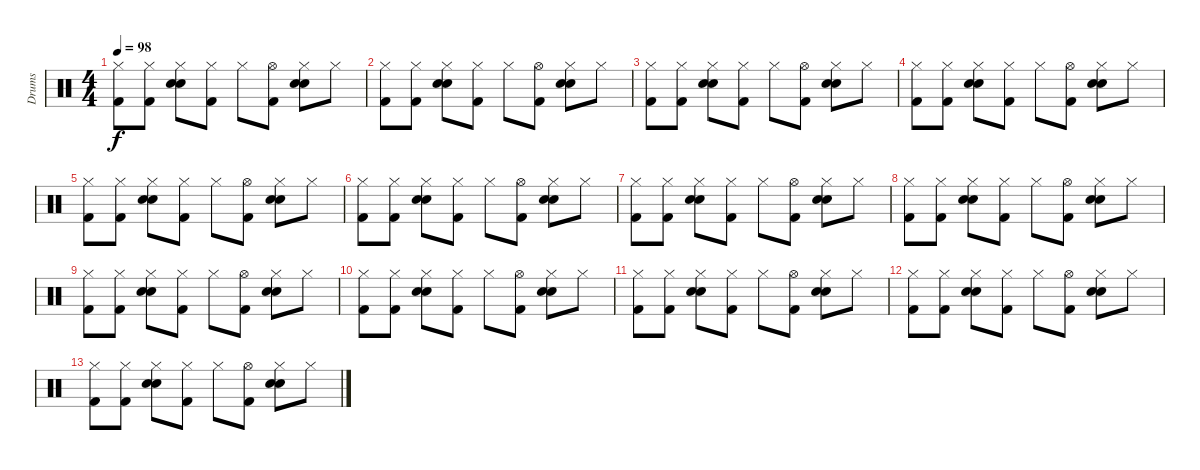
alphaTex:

\track ("Drums" "Drums") {instrument percussion}
\staff {score}
\articulation defaults
\ts (4 4)
\tempo 98
\clef neutral
\ks c
("Hi-Hat (closed)" "Kick (hit) 2").8{dy f} ("Hi-Hat (closed)" "Kick (hit) 2").8 ("Hand Clap (hit)" "Hi-Hat (closed)" "Snare (hit) 2").8 ("Hi-Hat (closed)" "Kick (hit) 2").8 "Hi-Hat (closed)".8 ("Hi-Hat (open)" "Kick (hit) 2").8 ("Hand Clap (hit)" "Hi-Hat (closed)" "Snare (hit) 2").8 "Hi-Hat (closed)".8 |
("Hi-Hat (closed)" "Kick (hit) 2").8{volume 8} ("Hi-Hat (closed)" "Kick (hit) 2").8 ("Hand Clap (hit)" "Hi-Hat (closed)" "Snare (hit) 2").8 ("Hi-Hat (closed)" "Kick (hit) 2").8 "Hi-Hat (closed)".8 ("Hi-Hat (open)" "Kick (hit) 2").8 ("Hand Clap (hit)" "Hi-Hat (closed)" "Snare (hit) 2").8 "Hi-Hat (closed)".8 |
("Hi-Hat (closed)" "Kick (hit) 2").8 ("Hi-Hat (closed)" "Kick (hit) 2").8 ("Hand Clap (hit)" "Hi-Hat (closed)" "Snare (hit) 2").8 ("Hi-Hat (closed)" "Kick (hit) 2").8 "Hi-Hat (closed)".8 ("Hi-Hat (open)" "Kick (hit) 2").8 ("Hand Clap (hit)" "Hi-Hat (closed)" "Snare (hit) 2").8 "Hi-Hat (closed)".8 |
("Hi-Hat (closed)" "Kick (hit) 2").8 ("Hi-Hat (closed)" "Kick (hit) 2").8 ("Hand Clap (hit)" "Hi-Hat (closed)" "Snare (hit) 2").8 ("Hi-Hat (closed)" "Kick (hit) 2").8 "Hi-Hat (closed)".8 ("Hi-Hat (open)" "Kick (hit) 2").8 ("Hand Clap (hit)" "Hi-Hat (closed)" "Snare (hit) 2").8 "Hi-Hat (closed)".8 |
("Hi-Hat (closed)" "Kick (hit) 2").8 ("Hi-Hat (closed)" "Kick (hit) 2").8 ("Hand Clap (hit)" "Hi-Hat (closed)" "Snare (hit) 2").8 ("Hi-Hat (closed)" "Kick (hit) 2").8 "Hi-Hat (closed)".8 ("Hi-Hat (open)" "Kick (hit) 2").8 ("Hand Clap (hit)" "Hi-Hat (closed)" "Snare (hit) 2").8 "Hi-Hat (closed)".8 |
("Hi-Hat (closed)" "Kick (hit) 2").8{volume 4} ("Hi-Hat (closed)" "Kick (hit) 2").8 ("Hand Clap (hit)" "Hi-Hat (closed)" "Snare (hit) 2").8 ("Hi-Hat (closed)" "Kick (hit) 2").8 "Hi-Hat (closed)".8 ("Hi-Hat (open)" "Kick (hit) 2").8 ("Hand Clap (hit)" "Hi-Hat (closed)" "Snare (hit) 2").8 "Hi-Hat (closed)".8 |
("Hi-Hat (closed)" "Kick (hit) 2").8 ("Hi-Hat (closed)" "Kick (hit) 2").8 ("Hand Clap (hit)" "Hi-Hat (closed)" "Snare (hit) 2").8 ("Hi-Hat (closed)" "Kick (hit) 2").8 "Hi-Hat (closed)".8 ("Hi-Hat (open)" "Kick (hit) 2").8 ("Hand Clap (hit)" "Hi-Hat (closed)" "Snare (hit) 2").8 "Hi-Hat (closed)".8 |
("Hi-Hat (closed)" "Kick (hit) 2").8 ("Hi-Hat (closed)" "Kick (hit) 2").8 ("Hand Clap (hit)" "Hi-Hat (closed)" "Snare (hit) 2").8 ("Hi-Hat (closed)" "Kick (hit) 2").8 "Hi-Hat (closed)".8 ("Hi-Hat (open)" "Kick (hit) 2").8 ("Hand Clap (hit)" "Hi-Hat (closed)" "Snare (hit) 2").8 "Hi-Hat (closed)".8 |
("Hi-Hat (closed)" "Kick (hit) 2").8 ("Hi-Hat (closed)" "Kick (hit) 2").8 ("Hand Clap (hit)" "Hi-Hat (closed)" "Snare (hit) 2").8 ("Hi-Hat (closed)" "Kick (hit) 2").8 "Hi-Hat (closed)".8 ("Hi-Hat (open)" "Kick (hit) 2").8 ("Hand Clap (hit)" "Hi-Hat (closed)" "Snare (hit) 2").8 "Hi-Hat (closed)".8 |
("Hi-Hat (closed)" "Kick (hit) 2").8{volume 0} ("Hi-Hat (closed)" "Kick (hit) 2").8 ("Hand Clap (hit)" "Hi-Hat (closed)" "Snare (hit) 2").8 ("Hi-Hat (closed)" "Kick (hit) 2").8 "Hi-Hat (closed)".8 ("Hi-Hat (open)" "Kick (hit) 2").8 ("Hand Clap (hit)" "Hi-Hat (closed)" "Snare (hit) 2").8 "Hi-Hat (closed)".8 |
("Hi-Hat (closed)" "Kick (hit) 2").8 ("Hi-Hat (closed)" "Kick (hit) 2").8 ("Hand Clap (hit)" "Hi-Hat (closed)" "Snare (hit) 2").8 ("Hi-Hat (closed)" "Kick (hit) 2").8 "Hi-Hat (closed)".8 ("Hi-Hat (open)" "Kick (hit) 2").8 ("Hand Clap (hit)" "Hi-Hat (closed)" "Snare (hit) 2").8 "Hi-Hat (closed)".8 |
("Hi-Hat (closed)" "Kick (hit) 2").8 ("Hi-Hat (closed)" "Kick (hit) 2").8 ("Hand Clap (hit)" "Hi-Hat (closed)" "Snare (hit) 2").8 ("Hi-Hat (closed)" "Kick (hit) 2").8 "Hi-Hat (closed)".8 ("Hi-Hat (open)" "Kick (hit) 2").8 ("Hand Clap (hit)" "Hi-Hat (closed)" "Snare (hit) 2").8 "Hi-Hat (closed)".8 |
("Hi-Hat (closed)" "Kick (hit) 2").8 ("Hi-Hat (closed)" "Kick (hit) 2").8 ("Hand Clap (hit)" "Hi-Hat (closed)" "Snare (hit) 2").8 ("Hi-Hat (closed)" "Kick (hit) 2").8 "Hi-Hat (closed)".8 ("Hi-Hat (open)" "Kick (hit) 2").8 ("Hand Clap (hit)" "Hi-Hat (closed)" "Snare (hit) 2").8 "Hi-Hat (closed)".8
